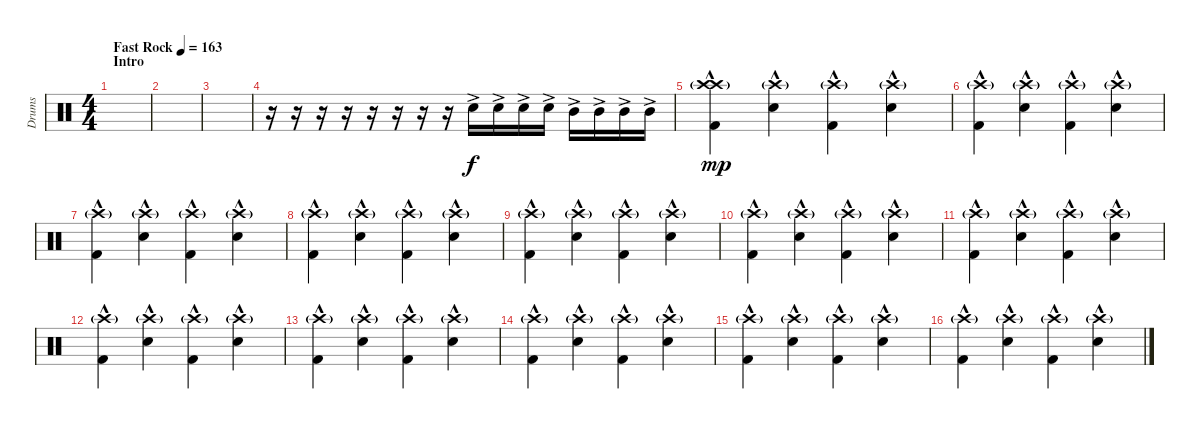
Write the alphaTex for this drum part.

\track ("Drums" "Drums") {instrument percussion}
\staff {score}
\articulation defaults
\ts (4 4)
\section ("" "Intro")
\tempo (163 "Fast Rock")
\clef neutral
\ks c
|
|
|
r.16 r.16 r.16 r.16 r.16 r.16 r.16 r.16 "Snare (hit) 2"{ac}.16 "Snare (hit) 2"{ac}.16 "Snare (hit) 2"{ac}.16 "Snare (hit) 2"{ac}.16 "Mid Tom (hit)"{ac}.16 "Mid Tom (hit)"{ac}.16 "Mid Tom (hit)"{ac}.16 "Mid Tom (hit)"{ac}.16 |
("Kick (hit) 2"{hac} "Crash high (hit)" "Crash high (hit)"{g}).4{dy mp} ("Snare (hit) 2"{hac} "Crash high (hit)"{g}).4 ("Kick (hit) 2"{hac} "Crash high (hit)"{g}).4 ("Snare (hit) 2"{hac} "Crash high (hit)"{g}).4 |
("Kick (hit) 2"{hac} "Crash high (hit)"{g}).4 ("Snare (hit) 2"{hac} "Crash high (hit)"{g}).4 ("Kick (hit) 2"{hac} "Crash high (hit)"{g}).4 ("Snare (hit) 2"{hac} "Crash high (hit)"{g}).4 |
("Kick (hit) 2"{hac} "Crash high (hit)"{g}).4 ("Snare (hit) 2"{hac} "Crash high (hit)"{g}).4 ("Kick (hit) 2"{hac} "Crash high (hit)"{g}).4 ("Snare (hit) 2"{hac} "Crash high (hit)"{g}).4 |
("Kick (hit) 2"{hac} "Crash high (hit)"{g}).4 ("Snare (hit) 2"{hac} "Crash high (hit)"{g}).4 ("Kick (hit) 2"{hac} "Crash high (hit)"{g}).4 ("Snare (hit) 2"{hac} "Crash high (hit)"{g}).4 |
("Kick (hit) 2"{hac} "Crash high (hit)"{g}).4 ("Snare (hit) 2"{hac} "Crash high (hit)"{g}).4 ("Kick (hit) 2"{hac} "Crash high (hit)"{g}).4 ("Snare (hit) 2"{hac} "Crash high (hit)"{g}).4 |
("Kick (hit) 2"{hac} "Crash high (hit)"{g}).4 ("Snare (hit) 2"{hac} "Crash high (hit)"{g}).4 ("Kick (hit) 2"{hac} "Crash high (hit)"{g}).4 ("Snare (hit) 2"{hac} "Crash high (hit)"{g}).4 |
("Kick (hit) 2"{hac} "Crash high (hit)"{g}).4 ("Snare (hit) 2"{hac} "Crash high (hit)"{g}).4 ("Kick (hit) 2"{hac} "Crash high (hit)"{g}).4 ("Snare (hit) 2"{hac} "Crash high (hit)"{g}).4 |
("Kick (hit) 2"{hac} "Crash high (hit)"{g}).4 ("Snare (hit) 2"{hac} "Crash high (hit)"{g}).4 ("Kick (hit) 2"{hac} "Crash high (hit)"{g}).4 ("Snare (hit) 2"{hac} "Crash high (hit)"{g}).4 |
("Kick (hit) 2"{hac} "Crash high (hit)"{g}).4 ("Snare (hit) 2"{hac} "Crash high (hit)"{g}).4 ("Kick (hit) 2"{hac} "Crash high (hit)"{g}).4 ("Snare (hit) 2"{hac} "Crash high (hit)"{g}).4 |
("Kick (hit) 2"{hac} "Crash high (hit)"{g}).4 ("Snare (hit) 2"{hac} "Crash high (hit)"{g}).4 ("Kick (hit) 2"{hac} "Crash high (hit)"{g}).4 ("Snare (hit) 2"{hac} "Crash high (hit)"{g}).4 |
("Kick (hit) 2"{hac} "Crash high (hit)"{g}).4 ("Snare (hit) 2"{hac} "Crash high (hit)"{g}).4 ("Kick (hit) 2"{hac} "Crash high (hit)"{g}).4 ("Snare (hit) 2"{hac} "Crash high (hit)"{g}).4 |
("Kick (hit) 2"{hac} "Crash high (hit)"{g}).4 ("Snare (hit) 2"{hac} "Crash high (hit)"{g}).4 ("Kick (hit) 2"{hac} "Crash high (hit)"{g}).4 ("Snare (hit) 2"{hac} "Crash high (hit)"{g}).4
